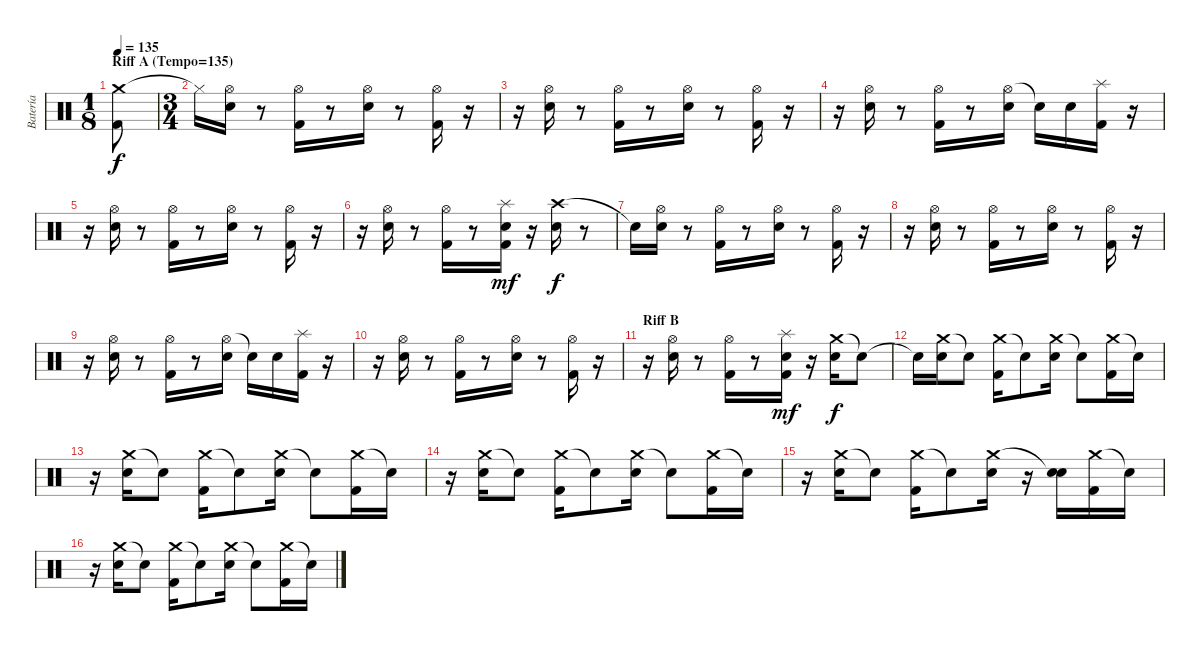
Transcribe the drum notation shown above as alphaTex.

\track ("Batería" "Batería") {instrument percussion}
\staff {score}
\articulation defaults
\ts (1 8)
\section ("" "Riff A (Tempo=135)")
\tempo 135
\clef neutral
\ks c
("Crash medium (hit)" "Kick (hit) 2").8{dy f} |
\ts (3 4)
"Hi-Hat (closed)"{t}.16 ("Hi-Hat (open)" "Snare (hit) 2").16 r.8 ("Hi-Hat (open)" "Kick (hit) 2").16 r.8 ("Hi-Hat (open)" "Snare (hit) 2").16 r.8 ("Hi-Hat (open)" "Kick (hit) 2").16 r.16 |
r.16 ("Hi-Hat (open)" "Snare (hit) 2").16 r.8 ("Hi-Hat (open)" "Kick (hit) 2").16 r.8 ("Hi-Hat (open)" "Snare (hit) 2").16 r.8 ("Hi-Hat (open)" "Kick (hit) 2").16 r.16 |
r.16 ("Hi-Hat (open)" "Snare (hit) 2").16 r.8 ("Hi-Hat (open)" "Kick (hit) 2").16 r.8 ("Hi-Hat (open)" "Snare (hit) 2").16 "Snare (hit)"{t}.16 "Snare (hit) 2".16 ("Splash (hit)" "Kick (hit) 2").16 r.16 |
r.16 ("Hi-Hat (open)" "Snare (hit) 2").16 r.8 ("Hi-Hat (open)" "Kick (hit) 2").16 r.8 ("Hi-Hat (open)" "Snare (hit) 2").16 r.8 ("Hi-Hat (open)" "Kick (hit) 2").16 r.16 |
r.16 ("Hi-Hat (open)" "Snare (hit) 2").16 r.8 ("Hi-Hat (open)" "Kick (hit) 2").16 r.8 ("Splash (hit)" "Snare (hit) 2" "Kick (hit) 2").16{dy mf} r.16 ("Crash high (hit)" "Snare (hit) 2").16{dy f} r.8 |
"Snare (hit)"{t}.16 ("Hi-Hat (open)" "Snare (hit) 2").16 r.8 ("Hi-Hat (open)" "Kick (hit) 2").16 r.8 ("Hi-Hat (open)" "Snare (hit) 2").16 r.8 ("Hi-Hat (open)" "Kick (hit) 2").16 r.16 |
r.16 ("Hi-Hat (open)" "Snare (hit) 2").16 r.8 ("Hi-Hat (open)" "Kick (hit) 2").16 r.8 ("Hi-Hat (open)" "Snare (hit) 2").16 r.8 ("Hi-Hat (open)" "Kick (hit) 2").16 r.16 |
r.16 ("Hi-Hat (open)" "Snare (hit) 2").16 r.8 ("Hi-Hat (open)" "Kick (hit) 2").16 r.8 ("Hi-Hat (open)" "Snare (hit) 2").16 "Snare (hit)"{t}.16 "Snare (hit) 2".16 ("Splash (hit)" "Kick (hit) 2").16 r.16 |
r.16 ("Hi-Hat (open)" "Snare (hit) 2").16 r.8 ("Hi-Hat (open)" "Kick (hit) 2").16 r.8 ("Hi-Hat (open)" "Snare (hit) 2").16 r.8 ("Hi-Hat (open)" "Kick (hit) 2").16 r.16 |
\section ("" "Riff B")
r.16 ("Hi-Hat (open)" "Snare (hit) 2").16 r.8 ("Hi-Hat (open)" "Kick (hit) 2").16 r.8 ("Splash (hit)" "Snare (hit) 2" "Kick (hit) 2").16{dy mf} r.16 ("Crash medium (hit)" "Snare (hit) 2").16{dy f} "Snare (hit)"{t}.8 |
"Snare (hit)"{t}.16 ("Crash medium (hit)" "Snare (hit) 2").16 "Snare (hit)"{t}.8 ("Crash medium (hit)" "Kick (hit) 2").16 "Snare (hit)"{t}.8 ("Crash medium (hit)" "Snare (hit) 2").16 "Snare (hit)"{t}.8 ("Crash medium (hit)" "Kick (hit) 2").16 "Snare (hit)"{t}.16 |
r.16 ("Crash medium (hit)" "Snare (hit) 2").16 "Snare (hit)"{t}.8 ("Crash medium (hit)" "Kick (hit) 2").16 "Snare (hit)"{t}.8 ("Crash medium (hit)" "Snare (hit) 2").16 "Snare (hit)"{t}.8 ("Crash medium (hit)" "Kick (hit) 2").16 "Snare (hit)"{t}.16 |
r.16 ("Crash medium (hit)" "Snare (hit) 2").16 "Snare (hit)"{t}.8 ("Crash medium (hit)" "Kick (hit) 2").16 "Snare (hit)"{t}.8 ("Crash medium (hit)" "Snare (hit) 2").16 "Snare (hit)"{t}.8 ("Crash medium (hit)" "Kick (hit) 2").16 "Snare (hit)"{t}.16 |
r.16 ("Crash medium (hit)" "Snare (hit) 2").16 "Snare (hit)"{t}.8 ("Crash medium (hit)" "Kick (hit) 2").16 "Snare (hit)"{t}.8 ("Crash medium (hit)" "Snare (hit) 2").16 r.16 ("Snare (hit)"{t} "Snare (hit) 2").16 ("Crash medium (hit)" "Kick (hit) 2").16 "Snare (hit)"{t}.16 |
r.16 ("Crash medium (hit)" "Snare (hit) 2").16 "Snare (hit)"{t}.8 ("Crash medium (hit)" "Kick (hit) 2").16 "Snare (hit)"{t}.8 ("Crash medium (hit)" "Snare (hit) 2").16 "Snare (hit)"{t}.8 ("Crash medium (hit)" "Kick (hit) 2").16 "Snare (hit)"{t}.16
